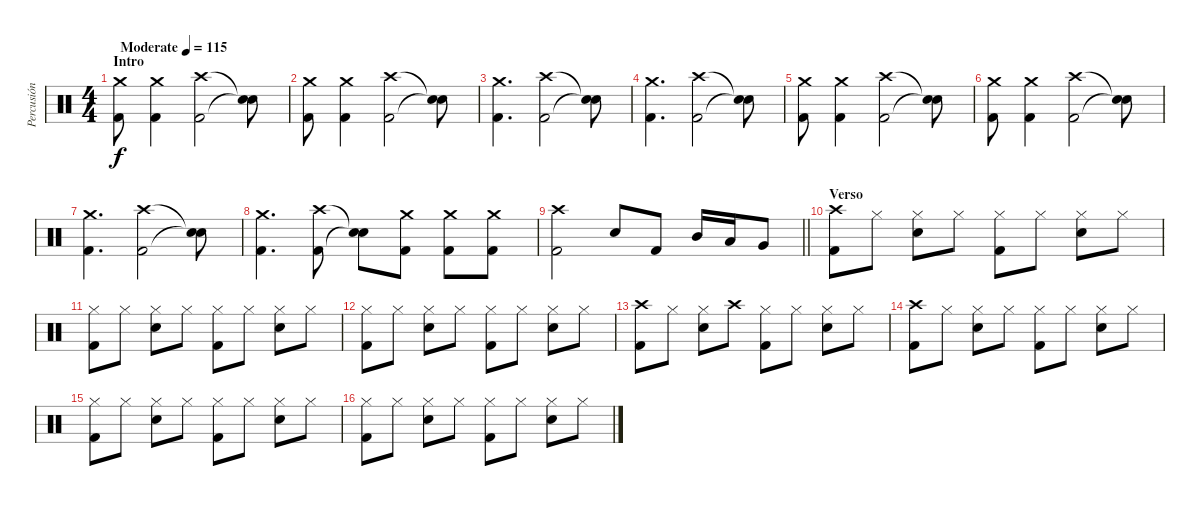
\track ("Percusión" "Percusión") {instrument percussion}
\staff {score}
\articulation defaults
\ts (4 4)
\section ("" "Intro")
\tempo (115 "Moderate")
\clef neutral
\ks c
("Crash medium (hit)" "Kick (hit) 2").8{dy f} ("Crash medium (hit)" "Kick (hit) 2").4 ("Crash high (hit)" "Kick (hit) 2").2 ("Snare (hit)"{t} "Snare (hit)"{t}).8 |
("Crash medium (hit)" "Kick (hit) 2").8 ("Crash medium (hit)" "Kick (hit) 2").4 ("Crash high (hit)" "Kick (hit) 2").2 ("Snare (hit)"{t} "Snare (hit)"{t}).8 |
("Crash medium (hit)" "Kick (hit) 2").4{d} ("Crash high (hit)" "Kick (hit) 2").2 ("Snare (hit)"{t} "Snare (hit)"{t}).8 |
("Crash medium (hit)" "Kick (hit) 2").4{d} ("Crash high (hit)" "Kick (hit) 2").2 ("Snare (hit)"{t} "Snare (hit)"{t}).8 |
("Crash medium (hit)" "Kick (hit) 2").8 ("Crash medium (hit)" "Kick (hit) 2").4 ("Crash high (hit)" "Kick (hit) 2").2 ("Snare (hit)"{t} "Snare (hit)"{t}).8 |
("Crash medium (hit)" "Kick (hit) 2").8 ("Crash medium (hit)" "Kick (hit) 2").4 ("Crash high (hit)" "Kick (hit) 2").2 ("Snare (hit)"{t} "Snare (hit)"{t}).8 |
("Crash medium (hit)" "Kick (hit) 2").4{d} ("Crash high (hit)" "Kick (hit) 2").2 ("Snare (hit)"{t} "Snare (hit)"{t}).8 |
("Crash medium (hit)" "Kick (hit) 2").4{d} ("Crash high (hit)" "Kick (hit) 2").8 ("Snare (hit)"{t} "Snare (hit)"{t}).8 ("Crash medium (hit)" "Kick (hit) 2").8 ("Crash medium (hit)" "Kick (hit) 2").8 ("Crash medium (hit)" "Kick (hit) 2").8 |
\barLineRight lightlight
("Crash high (hit)" "Kick (hit) 2").2 "Snare (hit) 2".8 "Kick (hit) 2".8 "Mid Tom (hit)".16 "Low Tom (hit)".16 "Very Low Tom (hit)".8 |
\section ("" "Verso")
("Crash high (hit)" "Kick (hit) 2").8 "Hi-Hat (closed)".8 ("Hi-Hat (closed)" "Snare (hit) 2").8 "Hi-Hat (closed)".8 ("Hi-Hat (closed)" "Kick (hit) 2").8 "Hi-Hat (closed)".8 ("Hi-Hat (closed)" "Snare (hit) 2").8 "Hi-Hat (closed)".8 |
("Hi-Hat (closed)" "Kick (hit) 2").8 "Hi-Hat (closed)".8 ("Hi-Hat (closed)" "Snare (hit) 2").8 "Hi-Hat (closed)".8 ("Hi-Hat (closed)" "Kick (hit) 2").8 "Hi-Hat (closed)".8 ("Hi-Hat (closed)" "Snare (hit) 2").8 "Hi-Hat (closed)".8 |
("Hi-Hat (closed)" "Kick (hit) 2").8 "Hi-Hat (closed)".8 ("Hi-Hat (closed)" "Snare (hit) 2").8 "Hi-Hat (closed)".8 ("Hi-Hat (closed)" "Kick (hit) 2").8 "Hi-Hat (closed)".8 ("Hi-Hat (closed)" "Snare (hit) 2").8 "Hi-Hat (closed)".8 |
("Crash high (hit)" "Kick (hit) 2").8 "Hi-Hat (closed)".8 ("Hi-Hat (closed)" "Snare (hit) 2").8 "Crash high (hit)".8 ("Hi-Hat (closed)" "Kick (hit) 2").8 "Hi-Hat (closed)".8 ("Hi-Hat (closed)" "Snare (hit) 2").8 "Hi-Hat (closed)".8 |
("Crash high (hit)" "Kick (hit) 2").8 "Hi-Hat (closed)".8 ("Hi-Hat (closed)" "Snare (hit) 2").8 "Hi-Hat (closed)".8 ("Hi-Hat (closed)" "Kick (hit) 2").8 "Hi-Hat (closed)".8 ("Hi-Hat (closed)" "Snare (hit) 2").8 "Hi-Hat (closed)".8 |
("Hi-Hat (closed)" "Kick (hit) 2").8 "Hi-Hat (closed)".8 ("Hi-Hat (closed)" "Snare (hit) 2").8 "Hi-Hat (closed)".8 ("Hi-Hat (closed)" "Kick (hit) 2").8 "Hi-Hat (closed)".8 ("Hi-Hat (closed)" "Snare (hit) 2").8 "Hi-Hat (closed)".8 |
("Hi-Hat (closed)" "Kick (hit) 2").8 "Hi-Hat (closed)".8 ("Hi-Hat (closed)" "Snare (hit) 2").8 "Hi-Hat (closed)".8 ("Hi-Hat (closed)" "Kick (hit) 2").8 "Hi-Hat (closed)".8 ("Hi-Hat (closed)" "Snare (hit) 2").8 "Hi-Hat (closed)".8
